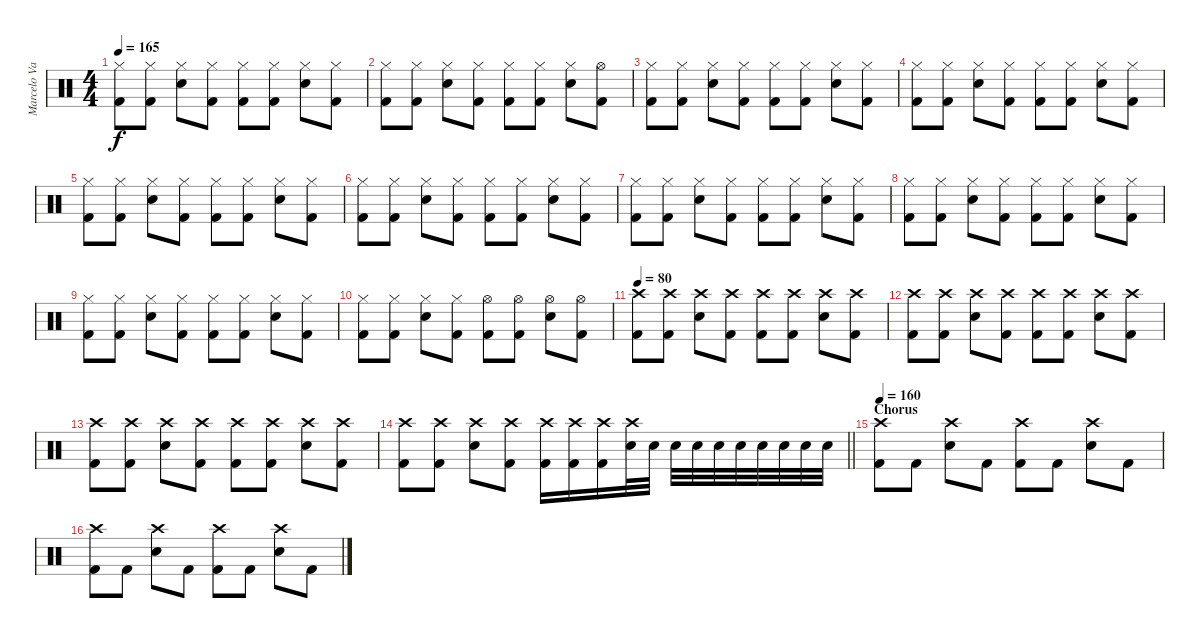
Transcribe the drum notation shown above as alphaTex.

\track ("Marcelo Valenzuela (Bateria)" "Marcelo Va") {instrument percussion}
\staff {score}
\articulation defaults
\ts (4 4)
\tempo 165
\clef neutral
\ks c
("Hi-Hat (closed)" "Kick (hit) 2").8{dy f} ("Hi-Hat (closed)" "Kick (hit) 2").8 ("Hi-Hat (closed)" "Electric Snare (hit)").8 ("Hi-Hat (closed)" "Kick (hit) 2").8 ("Hi-Hat (closed)" "Kick (hit) 2").8 ("Hi-Hat (closed)" "Kick (hit) 2").8 ("Hi-Hat (closed)" "Electric Snare (hit)").8 ("Hi-Hat (closed)" "Kick (hit) 2").8 |
("Hi-Hat (closed)" "Kick (hit) 2").8 ("Hi-Hat (closed)" "Kick (hit) 2").8 ("Hi-Hat (closed)" "Electric Snare (hit)").8 ("Hi-Hat (closed)" "Kick (hit) 2").8 ("Hi-Hat (closed)" "Kick (hit) 2").8 ("Hi-Hat (closed)" "Kick (hit) 2").8 ("Hi-Hat (closed)" "Electric Snare (hit)").8 ("Hi-Hat (open)" "Kick (hit) 2").8 |
("Hi-Hat (closed)" "Kick (hit) 2").8 ("Hi-Hat (closed)" "Kick (hit) 2").8 ("Hi-Hat (closed)" "Electric Snare (hit)").8 ("Hi-Hat (closed)" "Kick (hit) 2").8 ("Hi-Hat (closed)" "Kick (hit) 2").8 ("Hi-Hat (closed)" "Kick (hit) 2").8 ("Hi-Hat (closed)" "Electric Snare (hit)").8 ("Hi-Hat (closed)" "Kick (hit) 2").8 |
("Hi-Hat (closed)" "Kick (hit) 2").8 ("Hi-Hat (closed)" "Kick (hit) 2").8 ("Hi-Hat (closed)" "Electric Snare (hit)").8 ("Hi-Hat (closed)" "Kick (hit) 2").8 ("Hi-Hat (closed)" "Kick (hit) 2").8 ("Hi-Hat (closed)" "Kick (hit) 2").8 ("Hi-Hat (closed)" "Electric Snare (hit)").8 ("Hi-Hat (closed)" "Kick (hit) 2").8 |
("Hi-Hat (closed)" "Kick (hit) 2").8 ("Hi-Hat (closed)" "Kick (hit) 2").8 ("Hi-Hat (closed)" "Electric Snare (hit)").8 ("Hi-Hat (closed)" "Kick (hit) 2").8 ("Hi-Hat (closed)" "Kick (hit) 2").8 ("Hi-Hat (closed)" "Kick (hit) 2").8 ("Hi-Hat (closed)" "Electric Snare (hit)").8 ("Hi-Hat (closed)" "Kick (hit) 2").8 |
("Hi-Hat (closed)" "Kick (hit) 2").8 ("Hi-Hat (closed)" "Kick (hit) 2").8 ("Hi-Hat (closed)" "Electric Snare (hit)").8 ("Hi-Hat (closed)" "Kick (hit) 2").8 ("Hi-Hat (closed)" "Kick (hit) 2").8 ("Hi-Hat (closed)" "Kick (hit) 2").8 ("Hi-Hat (closed)" "Electric Snare (hit)").8 ("Hi-Hat (closed)" "Kick (hit) 2").8 |
("Hi-Hat (closed)" "Kick (hit) 2").8 ("Hi-Hat (closed)" "Kick (hit) 2").8 ("Hi-Hat (closed)" "Electric Snare (hit)").8 ("Hi-Hat (closed)" "Kick (hit) 2").8 ("Hi-Hat (closed)" "Kick (hit) 2").8 ("Hi-Hat (closed)" "Kick (hit) 2").8 ("Hi-Hat (closed)" "Electric Snare (hit)").8 ("Hi-Hat (closed)" "Kick (hit) 2").8 |
("Hi-Hat (closed)" "Kick (hit) 2").8 ("Hi-Hat (closed)" "Kick (hit) 2").8 ("Hi-Hat (closed)" "Electric Snare (hit)").8 ("Hi-Hat (closed)" "Kick (hit) 2").8 ("Hi-Hat (closed)" "Kick (hit) 2").8 ("Hi-Hat (closed)" "Kick (hit) 2").8 ("Hi-Hat (closed)" "Electric Snare (hit)").8 ("Hi-Hat (closed)" "Kick (hit) 2").8 |
("Hi-Hat (closed)" "Kick (hit) 2").8 ("Hi-Hat (closed)" "Kick (hit) 2").8 ("Hi-Hat (closed)" "Electric Snare (hit)").8 ("Hi-Hat (closed)" "Kick (hit) 2").8 ("Hi-Hat (closed)" "Kick (hit) 2").8 ("Hi-Hat (closed)" "Kick (hit) 2").8 ("Hi-Hat (closed)" "Electric Snare (hit)").8 ("Hi-Hat (closed)" "Kick (hit) 2").8 |
("Hi-Hat (closed)" "Kick (hit) 2").8 ("Hi-Hat (closed)" "Kick (hit) 2").8 ("Hi-Hat (closed)" "Electric Snare (hit)").8 ("Hi-Hat (closed)" "Kick (hit) 2").8 ("Hi-Hat (open)" "Kick (hit) 2").8 ("Hi-Hat (open)" "Kick (hit) 2").8 ("Hi-Hat (open)" "Electric Snare (hit)").8 ("Hi-Hat (open)" "Kick (hit) 2").8 |
\tempo 80
("Crash high (hit)" "Kick (hit) 2").8 ("Crash high (hit)" "Kick (hit) 2").8 ("Crash high (hit)" "Electric Snare (hit)").8 ("Crash high (hit)" "Kick (hit) 2").8 ("Crash high (hit)" "Kick (hit) 2").8 ("Crash high (hit)" "Kick (hit) 2").8 ("Crash high (hit)" "Electric Snare (hit)").8 ("Crash high (hit)" "Kick (hit) 2").8 |
("Crash high (hit)" "Kick (hit) 2").8 ("Crash high (hit)" "Kick (hit) 2").8 ("Crash high (hit)" "Electric Snare (hit)").8 ("Crash high (hit)" "Kick (hit) 2").8 ("Crash high (hit)" "Kick (hit) 2").8 ("Crash high (hit)" "Kick (hit) 2").8 ("Crash high (hit)" "Electric Snare (hit)").8 ("Crash high (hit)" "Kick (hit) 2").8 |
("Crash high (hit)" "Kick (hit) 2").8 ("Crash high (hit)" "Kick (hit) 2").8 ("Crash high (hit)" "Electric Snare (hit)").8 ("Crash high (hit)" "Kick (hit) 2").8 ("Crash high (hit)" "Kick (hit) 2").8 ("Crash high (hit)" "Kick (hit) 2").8 ("Crash high (hit)" "Electric Snare (hit)").8 ("Crash high (hit)" "Kick (hit) 2").8 |
\barLineRight lightlight
("Crash high (hit)" "Kick (hit) 2").8 ("Crash high (hit)" "Kick (hit) 2").8 ("Crash high (hit)" "Electric Snare (hit)").8 ("Crash high (hit)" "Kick (hit) 2").8 ("Crash high (hit)" "Kick (hit) 2").16 ("Crash high (hit)" "Kick (hit) 2").16 ("Crash high (hit)" "Kick (hit) 2").16 ("Crash high (hit)" "Electric Snare (hit)").32 "Electric Snare (hit)".32 "Electric Snare (hit)".32 "Electric Snare (hit)".32 "Electric Snare (hit)".32 "Electric Snare (hit)".32 "Electric Snare (hit)".32 "Electric Snare (hit)".32 "Electric Snare (hit)".32 "Electric Snare (hit)".32 |
\section ("" "Chorus")
\tempo 160
("Crash high (hit)" "Kick (hit) 2").8 "Kick (hit) 2".8 ("Crash high (hit)" "Electric Snare (hit)").8 "Kick (hit) 2".8 ("Crash high (hit)" "Kick (hit) 2").8 "Kick (hit) 2".8 ("Crash high (hit)" "Electric Snare (hit)").8 "Kick (hit) 2".8 |
("Crash high (hit)" "Kick (hit) 2").8 "Kick (hit) 2".8 ("Crash high (hit)" "Electric Snare (hit)").8 "Kick (hit) 2".8 ("Crash high (hit)" "Kick (hit) 2").8 "Kick (hit) 2".8 ("Crash high (hit)" "Electric Snare (hit)").8 "Kick (hit) 2".8
